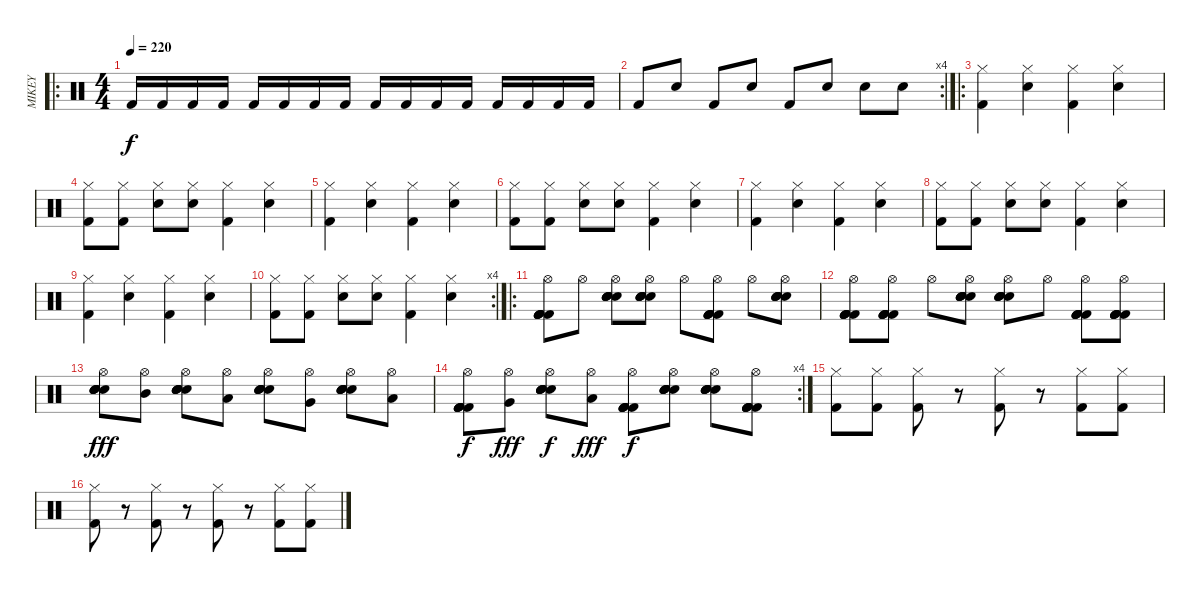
\track ("MIKEY" "MIKEY") {instrument percussion}
\staff {score}
\articulation defaults
\ro
\ts (4 4)
\tempo 220
\clef neutral
\ks c "Kick (hit) 2".16{dy f} "Kick (hit) 2".16 "Kick (hit) 2".16 "Kick (hit) 2".16 "Kick (hit) 2".16 "Kick (hit) 2".16 "Kick (hit) 2".16 "Kick (hit) 2".16 "Kick (hit) 2".16 "Kick (hit) 2".16 "Kick (hit) 2".16 "Kick (hit) 2".16 "Kick (hit) 2".16 "Kick (hit) 2".16 "Kick (hit) 2".16 "Kick (hit) 2".16
|
\rc 4 "Kick (hit) 2".8 "Electric Snare (hit)".8 "Kick (hit) 2".8 "Electric Snare (hit)".8 "Kick (hit) 2".8 "Electric Snare (hit)".8 "Electric Snare (hit)".8 "Electric Snare (hit)".8
|
\ro
("Hi-Hat (closed)" "Kick (hit) 2").4 ("Hi-Hat (closed)" "Electric Snare (hit)").4 ("Hi-Hat (closed)" "Kick (hit) 2").4 ("Hi-Hat (closed)" "Electric Snare (hit)").4 |
("Hi-Hat (closed)" "Kick (hit) 2").8 ("Hi-Hat (closed)" "Kick (hit) 2").8 ("Hi-Hat (closed)" "Electric Snare (hit)").8 ("Hi-Hat (closed)" "Electric Snare (hit)").8 ("Hi-Hat (closed)" "Kick (hit) 2").4 ("Hi-Hat (closed)" "Electric Snare (hit)").4 |
("Hi-Hat (closed)" "Kick (hit) 2").4 ("Hi-Hat (closed)" "Electric Snare (hit)").4 ("Hi-Hat (closed)" "Kick (hit) 2").4 ("Hi-Hat (closed)" "Electric Snare (hit)").4 |
("Hi-Hat (closed)" "Kick (hit) 2").8 ("Hi-Hat (closed)" "Kick (hit) 2").8 ("Hi-Hat (closed)" "Electric Snare (hit)").8 ("Hi-Hat (closed)" "Electric Snare (hit)").8 ("Hi-Hat (closed)" "Kick (hit) 2").4 ("Hi-Hat (closed)" "Electric Snare (hit)").4 |
("Hi-Hat (closed)" "Kick (hit) 2").4 ("Hi-Hat (closed)" "Electric Snare (hit)").4 ("Hi-Hat (closed)" "Kick (hit) 2").4 ("Hi-Hat (closed)" "Electric Snare (hit)").4 |
("Hi-Hat (closed)" "Kick (hit) 2").8 ("Hi-Hat (closed)" "Kick (hit) 2").8 ("Hi-Hat (closed)" "Electric Snare (hit)").8 ("Hi-Hat (closed)" "Electric Snare (hit)").8 ("Hi-Hat (closed)" "Kick (hit) 2").4 ("Hi-Hat (closed)" "Electric Snare (hit)").4 |
("Hi-Hat (closed)" "Kick (hit) 2").4 ("Hi-Hat (closed)" "Electric Snare (hit)").4 ("Hi-Hat (closed)" "Kick (hit) 2").4 ("Hi-Hat (closed)" "Electric Snare (hit)").4 |
\rc 4
("Hi-Hat (closed)" "Kick (hit) 2").8 ("Hi-Hat (closed)" "Kick (hit) 2").8 ("Hi-Hat (closed)" "Electric Snare (hit)").8 ("Hi-Hat (closed)" "Electric Snare (hit)").8 ("Hi-Hat (closed)" "Kick (hit) 2").4 ("Hi-Hat (closed)" "Electric Snare (hit)").4 |
\ro
("Kick (hit) 2" "Kick (hit) 2" "Kick (hit) 2" "Kick (hit) 2" "Kick (hit) 2" "Hi-Hat (open)").8 "Hi-Hat (open)".8 ("Electric Snare (hit)" "Electric Snare (hit)" "Electric Snare (hit)" "Electric Snare (hit)" "Electric Snare (hit)" "Hi-Hat (open)").8 ("Electric Snare (hit)" "Electric Snare (hit)" "Electric Snare (hit)" "Electric Snare (hit)" "Electric Snare (hit)" "Hi-Hat (open)").8 "Hi-Hat (open)".8 ("Kick (hit) 2" "Kick (hit) 2" "Kick (hit) 2" "Kick (hit) 2" "Kick (hit) 2" "Hi-Hat (open)").8 "Hi-Hat (open)".8 ("Electric Snare (hit)" "Electric Snare (hit)" "Electric Snare (hit)" "Electric Snare (hit)" "Electric Snare (hit)" "Hi-Hat (open)").8 |
("Kick (hit) 2" "Kick (hit) 2" "Kick (hit) 2" "Kick (hit) 2" "Kick (hit) 2" "Hi-Hat (open)").8 ("Kick (hit) 2" "Kick (hit) 2" "Kick (hit) 2" "Kick (hit) 2" "Kick (hit) 2" "Hi-Hat (open)").8 "Hi-Hat (open)".8 ("Electric Snare (hit)" "Electric Snare (hit)" "Electric Snare (hit)" "Electric Snare (hit)" "Electric Snare (hit)" "Hi-Hat (open)").8 ("Electric Snare (hit)" "Electric Snare (hit)" "Electric Snare (hit)" "Electric Snare (hit)" "Electric Snare (hit)" "Hi-Hat (open)").8 "Hi-Hat (open)".8 ("Kick (hit) 2" "Kick (hit) 2" "Kick (hit) 2" "Kick (hit) 2" "Kick (hit) 2" "Hi-Hat (open)").8 ("Kick (hit) 2" "Kick (hit) 2" "Kick (hit) 2" "Kick (hit) 2" "Kick (hit) 2" "Hi-Hat (open)").8 |
("Electric Snare (hit)" "Electric Snare (hit)" "Electric Snare (hit)" "Electric Snare (hit)" "Electric Snare (hit)" "Hi-Hat (open)").8{dy fff} ("Mid Tom (hit)" "Hi-Hat (open)").8 ("Electric Snare (hit)" "Electric Snare (hit)" "Electric Snare (hit)" "Electric Snare (hit)" "Electric Snare (hit)" "Hi-Hat (open)").8 ("Low Tom (hit)" "Hi-Hat (open)").8 ("Electric Snare (hit)" "Electric Snare (hit)" "Electric Snare (hit)" "Electric Snare (hit)" "Electric Snare (hit)" "Hi-Hat (open)").8 ("Very Low Tom (hit)" "Hi-Hat (open)").8 ("Electric Snare (hit)" "Electric Snare (hit)" "Electric Snare (hit)" "Electric Snare (hit)" "Electric Snare (hit)" "Hi-Hat (open)").8 ("Low Floor Tom (hit)" "Hi-Hat (open)").8 |
\rc 4
("Kick (hit) 2" "Kick (hit) 2" "Kick (hit) 2" "Kick (hit) 2" "Kick (hit) 2" "Hi-Hat (open)").8{dy f} ("Very Low Tom (hit)" "Hi-Hat (open)").8{dy fff} ("Electric Snare (hit)" "Electric Snare (hit)" "Electric Snare (hit)" "Electric Snare (hit)" "Electric Snare (hit)" "Hi-Hat (open)").8{dy f} ("Low Floor Tom (hit)" "Hi-Hat (open)").8{dy fff} ("Kick (hit) 2" "Kick (hit) 2" "Kick (hit) 2" "Kick (hit) 2" "Kick (hit) 2" "Hi-Hat (open)").8{dy f} ("Electric Snare (hit)" "Electric Snare (hit)" "Electric Snare (hit)" "Electric Snare (hit)" "Electric Snare (hit)" "Hi-Hat (open)").8 ("Electric Snare (hit)" "Electric Snare (hit)" "Electric Snare (hit)" "Electric Snare (hit)" "Electric Snare (hit)" "Hi-Hat (open)").8 ("Kick (hit) 2" "Kick (hit) 2" "Kick (hit) 2" "Kick (hit) 2" "Kick (hit) 2" "Hi-Hat (open)").8 |
("Hi-Hat (closed)" "Kick (hit) 2").8 ("Hi-Hat (closed)" "Kick (hit) 2").8 ("Hi-Hat (closed)" "Kick (hit) 2").8 r.8 ("Hi-Hat (closed)" "Kick (hit) 2").8 r.8 ("Hi-Hat (closed)" "Kick (hit) 2").8 ("Hi-Hat (closed)" "Kick (hit) 2").8 |
("Hi-Hat (closed)" "Kick (hit) 2").8 r.8 ("Hi-Hat (closed)" "Kick (hit) 2").8 r.8 ("Hi-Hat (closed)" "Kick (hit) 2").8 r.8 ("Hi-Hat (closed)" "Kick (hit) 2").8 ("Hi-Hat (closed)" "Kick (hit) 2").8
